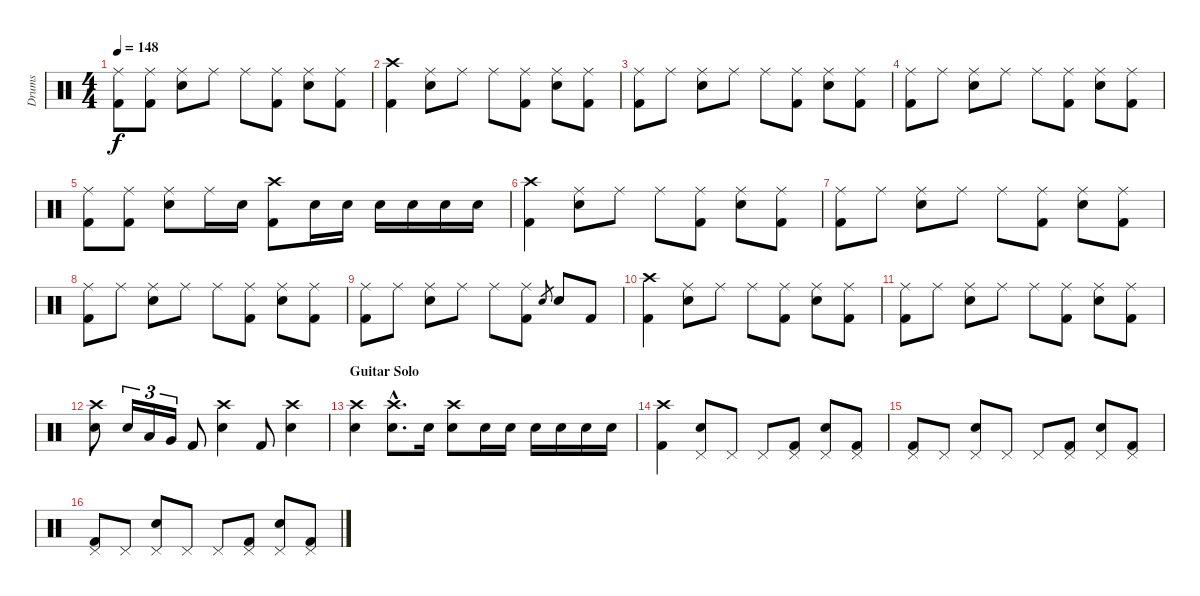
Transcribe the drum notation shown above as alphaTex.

\track ("Drums" "Drums") {instrument percussion}
\staff {score}
\articulation defaults
\ts (4 4)
\tempo 148
\clef neutral
\ks c
("Ride (middle)" "Kick (hit) 2").8{dy f} ("Ride (middle)" "Kick (hit) 2").8 ("Ride (middle)" "Electric Snare (hit)").8 "Ride (middle)".8 "Ride (middle)".8 ("Ride (middle)" "Kick (hit) 2").8 ("Ride (middle)" "Electric Snare (hit)").8 ("Ride (middle)" "Kick (hit) 2").8 |
("Crash high (hit)" "Kick (hit) 2").4 ("Ride (middle)" "Electric Snare (hit)").8 "Ride (middle)".8 "Ride (middle)".8 ("Ride (middle)" "Kick (hit) 2").8 ("Ride (middle)" "Electric Snare (hit)").8 ("Ride (middle)" "Kick (hit) 2").8 |
("Ride (middle)" "Kick (hit) 2").8 "Ride (middle)".8 ("Ride (middle)" "Electric Snare (hit)").8 "Ride (middle)".8 "Ride (middle)".8 ("Ride (middle)" "Kick (hit) 2").8 ("Ride (middle)" "Electric Snare (hit)").8 ("Ride (middle)" "Kick (hit) 2").8 |
("Ride (middle)" "Kick (hit) 2").8 "Ride (middle)".8 ("Ride (middle)" "Electric Snare (hit)").8 "Ride (middle)".8 "Ride (middle)".8 ("Ride (middle)" "Kick (hit) 2").8 ("Ride (middle)" "Electric Snare (hit)").8 ("Ride (middle)" "Kick (hit) 2").8 |
("Ride (middle)" "Kick (hit) 2").8 ("Ride (middle)" "Kick (hit) 2").8 ("Ride (middle)" "Electric Snare (hit)").8 "Ride (middle)".16 "Electric Snare (hit)".16 ("Crash high (hit)" "Kick (hit) 2").8 "Electric Snare (hit)".16 "Electric Snare (hit)".16 "Electric Snare (hit)".16 "Electric Snare (hit)".16 "Electric Snare (hit)".16 "Electric Snare (hit)".16 |
("Crash high (hit)" "Kick (hit) 2").4 ("Ride (middle)" "Electric Snare (hit)").8 "Ride (middle)".8 "Ride (middle)".8 ("Ride (middle)" "Kick (hit) 2").8 ("Ride (middle)" "Electric Snare (hit)").8 ("Ride (middle)" "Kick (hit) 2").8 |
("Ride (middle)" "Kick (hit) 2").8 "Ride (middle)".8 ("Ride (middle)" "Electric Snare (hit)").8 "Ride (middle)".8 "Ride (middle)".8 ("Ride (middle)" "Kick (hit) 2").8 ("Ride (middle)" "Electric Snare (hit)").8 ("Ride (middle)" "Kick (hit) 2").8 |
("Ride (middle)" "Kick (hit) 2").8 "Ride (middle)".8 ("Ride (middle)" "Electric Snare (hit)").8 "Ride (middle)".8 "Ride (middle)".8 ("Ride (middle)" "Kick (hit) 2").8 ("Ride (middle)" "Electric Snare (hit)").8 ("Ride (middle)" "Kick (hit) 2").8 |
("Ride (middle)" "Kick (hit) 2").8 "Ride (middle)".8 ("Ride (middle)" "Electric Snare (hit)").8 "Ride (middle)".8 "Ride (middle)".8 ("Ride (middle)" "Kick (hit) 2").8 "Electric Snare (hit)".8{gr} "Electric Snare (hit)".8 "Kick (hit) 2".8 |
("Crash high (hit)" "Kick (hit) 2").4 ("Ride (middle)" "Electric Snare (hit)").8 "Ride (middle)".8 "Ride (middle)".8 ("Ride (middle)" "Kick (hit) 2").8 ("Ride (middle)" "Electric Snare (hit)").8 ("Ride (middle)" "Kick (hit) 2").8 |
("Ride (middle)" "Kick (hit) 2").8 "Ride (middle)".8 ("Ride (middle)" "Electric Snare (hit)").8 "Ride (middle)".8 "Ride (middle)".8 ("Ride (middle)" "Kick (hit) 2").8 ("Ride (middle)" "Electric Snare (hit)").8 ("Ride (middle)" "Kick (hit) 2").8 |
("Crash high (hit)" "Electric Snare (hit)").8 "Electric Snare (hit)".16{tu (3 2)} "Low Tom (hit)".16{tu (3 2)} "Very Low Tom (hit)".16{tu (3 2)} "Kick (hit) 2".8 ("Crash high (hit)" "Electric Snare (hit)").4 "Kick (hit) 2".8 ("Crash high (hit)" "Electric Snare (hit)").4 |
\section ("" "Guitar Solo")
("Crash high (hit)" "Electric Snare (hit)").4 ("Crash high (hit)"{hac} "Electric Snare (hit)"{hac}).8{d} "Electric Snare (hit)".16 ("Crash high (hit)" "Electric Snare (hit)").8 "Electric Snare (hit)".16 "Electric Snare (hit)".16 "Electric Snare (hit)".16 "Electric Snare (hit)".16 "Electric Snare (hit)".16 "Electric Snare (hit)".16 |
("Crash high (hit)" "Kick (hit) 2").4 ("Pedal Hi-Hat (hit)" "Electric Snare (hit)").8 "Pedal Hi-Hat (hit)".8 "Pedal Hi-Hat (hit)".8 ("Pedal Hi-Hat (hit)" "Kick (hit) 2").8 ("Pedal Hi-Hat (hit)" "Electric Snare (hit)").8 ("Pedal Hi-Hat (hit)" "Kick (hit) 2").8 |
("Pedal Hi-Hat (hit)" "Kick (hit) 2").8 "Pedal Hi-Hat (hit)".8 ("Pedal Hi-Hat (hit)" "Electric Snare (hit)").8 "Pedal Hi-Hat (hit)".8 "Pedal Hi-Hat (hit)".8 ("Pedal Hi-Hat (hit)" "Kick (hit) 2").8 ("Pedal Hi-Hat (hit)" "Electric Snare (hit)").8 ("Pedal Hi-Hat (hit)" "Kick (hit) 2").8 |
("Pedal Hi-Hat (hit)" "Kick (hit) 2").8 "Pedal Hi-Hat (hit)".8 ("Pedal Hi-Hat (hit)" "Electric Snare (hit)").8 "Pedal Hi-Hat (hit)".8 "Pedal Hi-Hat (hit)".8 ("Pedal Hi-Hat (hit)" "Kick (hit) 2").8 ("Pedal Hi-Hat (hit)" "Electric Snare (hit)").8 ("Pedal Hi-Hat (hit)" "Kick (hit) 2").8
